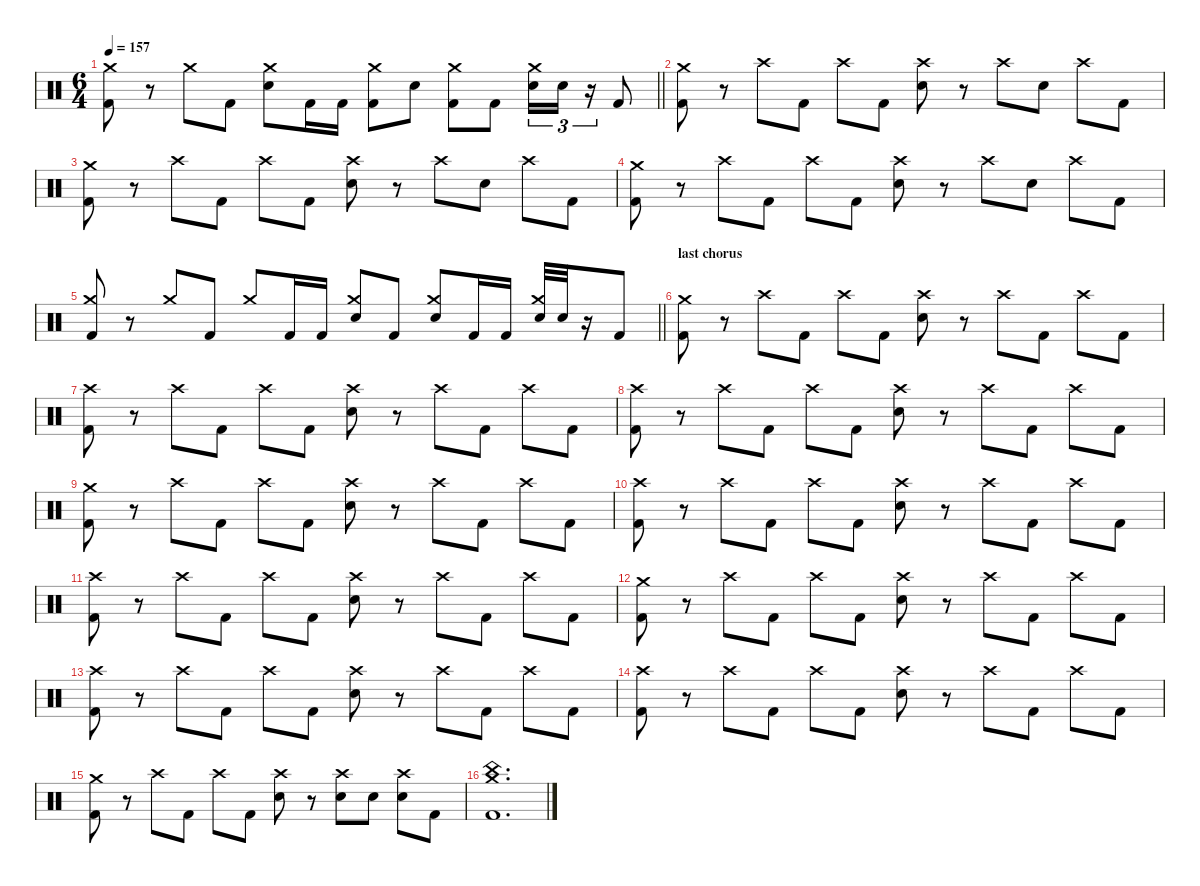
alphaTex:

\defaultSystemsLayout 4
\hideDynamics
\bracketExtendMode nobrackets
\singleTrackTrackNamePolicy hidden
\multiTrackTrackNamePolicy hidden
\firstSystemTrackNameMode fullname
\firstSystemTrackNameOrientation horizontal
\otherSystemsTrackNameOrientation horizontal
\track ("Drums" "drm.") {defaultSystemsLayout 4 instrument percussion}
\staff {score}
\articulation defaults
\ts (6 4)
\tempo 157
\clef neutral
\barLineRight lightlight
\ks c
("Crash medium (hit)" "Kick (hit) 2").8{dy f beam Down} r.8{beam Down} "Crash medium (hit)".8{beam Down} "Kick (hit) 2".8{beam Down} ("Crash medium (hit)" "Snare (hit) 2").8{beam Down} "Kick (hit) 2".16{beam Down} "Kick (hit) 2".16{beam Down} ("Crash medium (hit)" "Kick (hit) 2").8{beam Down} "Snare (hit) 2".8{beam Down} ("Crash medium (hit)" "Kick (hit) 2").8{beam Down} "Kick (hit) 2".8{beam Down} ("Crash medium (hit)" "Snare (hit) 2").16{tu (3 2) beam Down} "Snare (hit) 2".16{tu (3 2) beam Down} r.16{tu (3 2) beam Down} "Kick (hit) 2".8{beam Up} |
("Crash medium (hit)" "Kick (hit) 2").8{beam Down} r.8{beam Down} "Crash high (hit)".8{beam Down} "Kick (hit) 2".8{beam Down} "Crash high (hit)".8{beam Down} "Kick (hit) 2".8{beam Down} ("Crash high (hit)" "Snare (hit) 2").8{beam Down} r.8{beam Down} "Crash high (hit)".8{beam Down} "Snare (hit) 2".8{beam Down} "Crash high (hit)".8{beam Down} "Kick (hit) 2".8{beam Down} |
("Crash medium (hit)" "Kick (hit) 2").8{beam Down} r.8{beam Down} "Crash high (hit)".8{beam Down} "Kick (hit) 2".8{beam Down} "Crash high (hit)".8{beam Down} "Kick (hit) 2".8{beam Down} ("Crash high (hit)" "Snare (hit) 2").8{beam Down} r.8{beam Down} "Crash high (hit)".8{beam Down} "Snare (hit) 2".8{beam Down} "Crash high (hit)".8{beam Down} "Kick (hit) 2".8{beam Down} |
("Crash medium (hit)" "Kick (hit) 2").8{beam Down} r.8{beam Down} "Crash high (hit)".8{beam Down} "Kick (hit) 2".8{beam Down} "Crash high (hit)".8{beam Down} "Kick (hit) 2".8{beam Down} ("Crash high (hit)" "Snare (hit) 2").8{beam Down} r.8{beam Down} "Crash high (hit)".8{beam Down} "Snare (hit) 2".8{beam Down} "Crash high (hit)".8{beam Down} "Kick (hit) 2".8{beam Down} |
\barLineRight lightlight
("Crash medium (hit)" "Kick (hit) 2").8{beam Up} r.8{beam Up} "Crash medium (hit)".8{beam Up} "Kick (hit) 2".8{beam Up} "Crash medium (hit)".8{beam Up} "Kick (hit) 2".16{beam Up} "Kick (hit) 2".16{beam Up} ("Crash medium (hit)" "Snare (hit) 2").8{beam Up} "Kick (hit) 2".8{beam Up} ("Crash medium (hit)" "Snare (hit) 2").8{beam Up} "Kick (hit) 2".16{beam Up} "Kick (hit) 2".16{beam Up} ("Crash medium (hit)" "Snare (hit) 2").32{beam Up} "Snare (hit) 2".32{beam Up} r.16{beam Up} "Kick (hit) 2".8{beam Up} |
\section ("" "last chorus")
("Crash medium (hit)" "Kick (hit) 2").8{beam Down} r.8{beam Down} "Crash high (hit)".8{beam Down} "Kick (hit) 2".8{beam Down} "Crash high (hit)".8{beam Down} "Kick (hit) 2".8{beam Down} ("Crash high (hit)" "Snare (hit) 2").8{beam Down} r.8{beam Down} "Crash high (hit)".8{beam Down} "Kick (hit) 2".8{beam Down} "Crash high (hit)".8{beam Down} "Kick (hit) 2".8{beam Down} |
("Crash high (hit)" "Kick (hit) 2").8{beam Down} r.8{beam Down} "Crash high (hit)".8{beam Down} "Kick (hit) 2".8{beam Down} "Crash high (hit)".8{beam Down} "Kick (hit) 2".8{beam Down} ("Crash high (hit)" "Snare (hit) 2").8{beam Down} r.8{beam Down} "Crash high (hit)".8{beam Down} "Kick (hit) 2".8{beam Down} "Crash high (hit)".8{beam Down} "Kick (hit) 2".8{beam Down} |
("Crash high (hit)" "Kick (hit) 2").8{beam Down} r.8{beam Down} "Crash high (hit)".8{beam Down} "Kick (hit) 2".8{beam Down} "Crash high (hit)".8{beam Down} "Kick (hit) 2".8{beam Down} ("Crash high (hit)" "Snare (hit) 2").8{beam Down} r.8{beam Down} "Crash high (hit)".8{beam Down} "Kick (hit) 2".8{beam Down} "Crash high (hit)".8{beam Down} "Kick (hit) 2".8{beam Down} |
("Crash medium (hit)" "Kick (hit) 2").8{beam Down} r.8{beam Down} "Crash high (hit)".8{beam Down} "Kick (hit) 2".8{beam Down} "Crash high (hit)".8{beam Down} "Kick (hit) 2".8{beam Down} ("Crash high (hit)" "Snare (hit) 2").8{beam Down} r.8{beam Down} "Crash high (hit)".8{beam Down} "Kick (hit) 2".8{beam Down} "Crash high (hit)".8{beam Down} "Kick (hit) 2".8{beam Down} |
("Crash high (hit)" "Kick (hit) 2").8{beam Down} r.8{beam Down} "Crash high (hit)".8{beam Down} "Kick (hit) 2".8{beam Down} "Crash high (hit)".8{beam Down} "Kick (hit) 2".8{beam Down} ("Crash high (hit)" "Snare (hit) 2").8{beam Down} r.8{beam Down} "Crash high (hit)".8{beam Down} "Kick (hit) 2".8{beam Down} "Crash high (hit)".8{beam Down} "Kick (hit) 2".8{beam Down} |
("Crash high (hit)" "Kick (hit) 2").8{beam Down} r.8{beam Down} "Crash high (hit)".8{beam Down} "Kick (hit) 2".8{beam Down} "Crash high (hit)".8{beam Down} "Kick (hit) 2".8{beam Down} ("Crash high (hit)" "Snare (hit) 2").8{beam Down} r.8{beam Down} "Crash high (hit)".8{beam Down} "Kick (hit) 2".8{beam Down} "Crash high (hit)".8{beam Down} "Kick (hit) 2".8{beam Down} |
("Crash medium (hit)" "Kick (hit) 2").8{beam Down} r.8{beam Down} "Crash high (hit)".8{beam Down} "Kick (hit) 2".8{beam Down} "Crash high (hit)".8{beam Down} "Kick (hit) 2".8{beam Down} ("Crash high (hit)" "Snare (hit) 2").8{beam Down} r.8{beam Down} "Crash high (hit)".8{beam Down} "Kick (hit) 2".8{beam Down} "Crash high (hit)".8{beam Down} "Kick (hit) 2".8{beam Down} |
("Crash high (hit)" "Kick (hit) 2").8{beam Down} r.8{beam Down} "Crash high (hit)".8{beam Down} "Kick (hit) 2".8{beam Down} "Crash high (hit)".8{beam Down} "Kick (hit) 2".8{beam Down} ("Crash high (hit)" "Snare (hit) 2").8{beam Down} r.8{beam Down} "Crash high (hit)".8{beam Down} "Kick (hit) 2".8{beam Down} "Crash high (hit)".8{beam Down} "Kick (hit) 2".8{beam Down} |
("Crash high (hit)" "Kick (hit) 2").8{beam Down} r.8{beam Down} "Crash high (hit)".8{beam Down} "Kick (hit) 2".8{beam Down} "Crash high (hit)".8{beam Down} "Kick (hit) 2".8{beam Down} ("Crash high (hit)" "Snare (hit) 2").8{beam Down} r.8{beam Down} "Crash high (hit)".8{beam Down} "Kick (hit) 2".8{beam Down} "Crash high (hit)".8{beam Down} "Kick (hit) 2".8{beam Down} |
("Crash medium (hit)" "Kick (hit) 2").8{beam Down} r.8{beam Down} "Crash high (hit)".8{beam Down} "Kick (hit) 2".8{beam Down} "Crash high (hit)".8{beam Down} "Kick (hit) 2".8{beam Down} ("Crash high (hit)" "Snare (hit) 2").8{beam Down} r.8{beam Down} ("Crash high (hit)" "Snare (hit) 2").8{beam Down} "Snare (hit) 2".8{beam Down} ("Crash high (hit)" "Snare (hit) 2").8{beam Down} "Kick (hit) 2".8{beam Down} |
("China (hit)" "Crash medium (hit)" "Kick (hit) 2").1{d beam Down}
